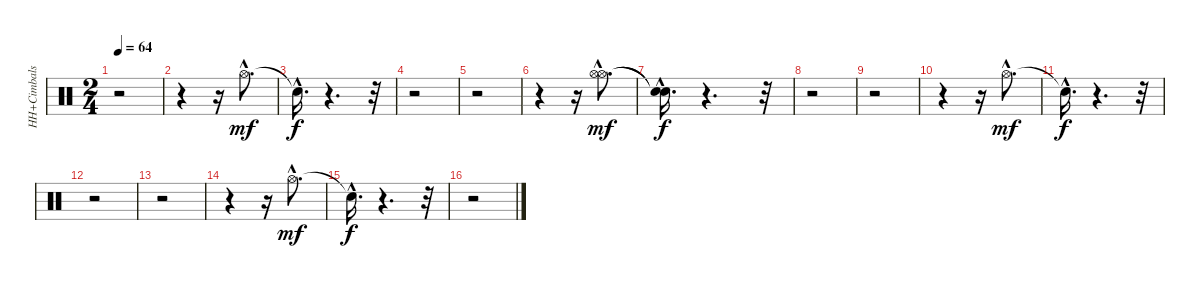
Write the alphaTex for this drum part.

\track ("HH+Cimbals" "HH+Cimbals") {instrument percussion}
\staff {score}
\articulation defaults
\ts (2 4)
\tempo 64
\clef neutral
\ks c
r.2{dy f} |
r.4 r.16 "Hi-Hat (open)"{hac}.8{d dy mf} |
"Snare (hit)"{hac t}.16{d dy f} r.4{d} r.32 |
r.2 |
r.2 |
r.4 r.16 ("Hi-Hat (open)"{hac} "Hi-Hat (open)"{hac}).8{d dy mf} |
("Snare (hit)"{hac t} "Snare (hit)"{hac t}).16{d dy f} r.4{d} r.32 |
r.2 |
r.2 |
r.4 r.16 "Hi-Hat (open)"{hac}.8{d dy mf} |
"Snare (hit)"{hac t}.16{d dy f} r.4{d} r.32 |
r.2 |
r.2 |
r.4 r.16 "Hi-Hat (open)"{hac}.8{d dy mf} |
"Snare (hit)"{hac t}.16{d dy f} r.4{d} r.32 |
r.2
